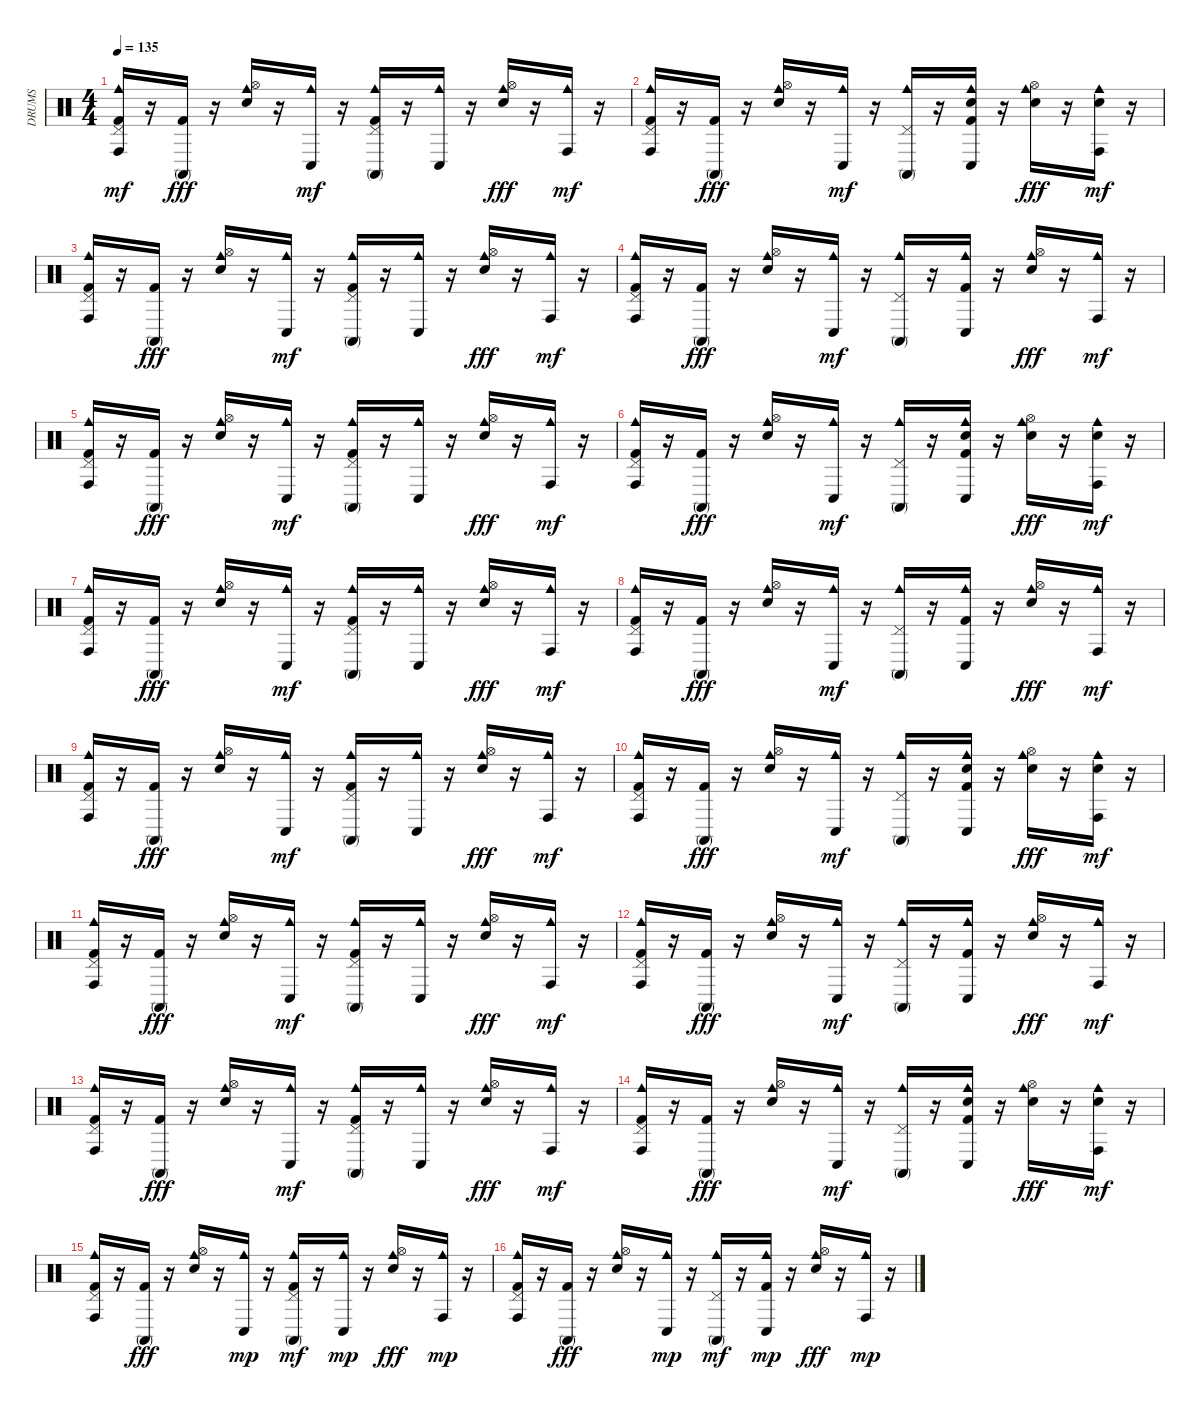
\track ("DRUMS" "DRUMS") {instrument percussion}
\staff {score}
\articulation defaults
\ts (4 4)
\tempo 135
\clef neutral
\ks c
("Kick (hit) 2" "Pedal Hi-Hat (hit)" "Cowbell medium (hit)" "Conga high (hit)").16{dy mf} r.16 ("Kick (hit) 2" "Conga high (mute)").16{dy fff} r.16 ("Snare (hit) 2" "Hi-Hat (open)" "Cowbell medium (hit)").16 r.16 ("Cowbell medium (hit)" "Conga low (hit)").16{dy mf} r.16 ("Kick (hit) 2" "Pedal Hi-Hat (hit)" "Cowbell medium (hit)" "Conga high (mute)").16 r.16 ("Cowbell medium (hit)" "Conga low (hit)").16 r.16 ("Snare (hit) 2" "Hi-Hat (open)" "Cowbell medium (hit)").16{dy fff} r.16 ("Cowbell medium (hit)" "Conga high (hit)").16{dy mf} r.16 |
("Kick (hit) 2" "Pedal Hi-Hat (hit)" "Cowbell medium (hit)" "Conga high (hit)").16 r.16 ("Kick (hit) 2" "Conga high (mute)").16{dy fff} r.16 ("Snare (hit) 2" "Hi-Hat (open)" "Cowbell medium (hit)").16 r.16 ("Cowbell medium (hit)" "Conga low (hit)").16{dy mf} r.16 ("Pedal Hi-Hat (hit)" "Cowbell medium (hit)" "Conga high (mute)").16 r.16 ("Kick (hit) 2" "Cowbell medium (hit)" "Hand Clap (hit)" "Conga low (hit)").16 r.16 ("Snare (hit) 2" "Hi-Hat (open)" "Cowbell medium (hit)").16{dy fff} r.16 ("Cowbell medium (hit)" "Hand Clap (hit)" "Conga high (hit)").16{dy mf} r.16 |
("Kick (hit) 2" "Pedal Hi-Hat (hit)" "Cowbell medium (hit)" "Conga high (hit)").16 r.16 ("Kick (hit) 2" "Conga high (mute)").16{dy fff} r.16 ("Snare (hit) 2" "Hi-Hat (open)" "Cowbell medium (hit)").16 r.16 ("Cowbell medium (hit)" "Conga low (hit)").16{dy mf} r.16 ("Kick (hit) 2" "Pedal Hi-Hat (hit)" "Cowbell medium (hit)" "Conga high (mute)").16 r.16 ("Cowbell medium (hit)" "Conga low (hit)").16 r.16 ("Snare (hit) 2" "Hi-Hat (open)" "Cowbell medium (hit)").16{dy fff} r.16 ("Cowbell medium (hit)" "Conga high (hit)").16{dy mf} r.16 |
("Kick (hit) 2" "Pedal Hi-Hat (hit)" "Cowbell medium (hit)" "Conga high (hit)").16 r.16 ("Kick (hit) 2" "Conga high (mute)").16{dy fff} r.16 ("Snare (hit) 2" "Hi-Hat (open)" "Cowbell medium (hit)").16 r.16 ("Cowbell medium (hit)" "Conga low (hit)").16{dy mf} r.16 ("Pedal Hi-Hat (hit)" "Cowbell medium (hit)" "Conga high (mute)").16 r.16 ("Kick (hit) 2" "Cowbell medium (hit)" "Conga low (hit)").16 r.16 ("Snare (hit) 2" "Hi-Hat (open)" "Cowbell medium (hit)").16{dy fff} r.16 ("Cowbell medium (hit)" "Conga high (hit)").16{dy mf} r.16 |
("Kick (hit) 2" "Pedal Hi-Hat (hit)" "Cowbell medium (hit)" "Conga high (hit)").16 r.16 ("Kick (hit) 2" "Conga high (mute)").16{dy fff} r.16 ("Snare (hit) 2" "Hi-Hat (open)" "Cowbell medium (hit)").16 r.16 ("Cowbell medium (hit)" "Conga low (hit)").16{dy mf} r.16 ("Kick (hit) 2" "Pedal Hi-Hat (hit)" "Cowbell medium (hit)" "Conga high (mute)").16 r.16 ("Cowbell medium (hit)" "Conga low (hit)").16 r.16 ("Snare (hit) 2" "Hi-Hat (open)" "Cowbell medium (hit)").16{dy fff} r.16 ("Cowbell medium (hit)" "Conga high (hit)").16{dy mf} r.16 |
("Kick (hit) 2" "Pedal Hi-Hat (hit)" "Cowbell medium (hit)" "Conga high (hit)").16 r.16 ("Kick (hit) 2" "Conga high (mute)").16{dy fff} r.16 ("Snare (hit) 2" "Hi-Hat (open)" "Cowbell medium (hit)").16 r.16 ("Cowbell medium (hit)" "Conga low (hit)").16{dy mf} r.16 ("Pedal Hi-Hat (hit)" "Cowbell medium (hit)" "Conga high (mute)").16 r.16 ("Kick (hit) 2" "Cowbell medium (hit)" "Hand Clap (hit)" "Conga low (hit)").16 r.16 ("Snare (hit) 2" "Hi-Hat (open)" "Cowbell medium (hit)").16{dy fff} r.16 ("Cowbell medium (hit)" "Hand Clap (hit)" "Conga high (hit)").16{dy mf} r.16 |
("Kick (hit) 2" "Pedal Hi-Hat (hit)" "Cowbell medium (hit)" "Conga high (hit)").16 r.16 ("Kick (hit) 2" "Conga high (mute)").16{dy fff} r.16 ("Snare (hit) 2" "Hi-Hat (open)" "Cowbell medium (hit)").16 r.16 ("Cowbell medium (hit)" "Conga low (hit)").16{dy mf} r.16 ("Kick (hit) 2" "Pedal Hi-Hat (hit)" "Cowbell medium (hit)" "Conga high (mute)").16 r.16 ("Cowbell medium (hit)" "Conga low (hit)").16 r.16 ("Snare (hit) 2" "Hi-Hat (open)" "Cowbell medium (hit)").16{dy fff} r.16 ("Cowbell medium (hit)" "Conga high (hit)").16{dy mf} r.16 |
("Kick (hit) 2" "Pedal Hi-Hat (hit)" "Cowbell medium (hit)" "Conga high (hit)").16 r.16 ("Kick (hit) 2" "Conga high (mute)").16{dy fff} r.16 ("Snare (hit) 2" "Hi-Hat (open)" "Cowbell medium (hit)").16 r.16 ("Cowbell medium (hit)" "Conga low (hit)").16{dy mf} r.16 ("Pedal Hi-Hat (hit)" "Cowbell medium (hit)" "Conga high (mute)").16 r.16 ("Kick (hit) 2" "Cowbell medium (hit)" "Conga low (hit)").16 r.16 ("Snare (hit) 2" "Hi-Hat (open)" "Cowbell medium (hit)").16{dy fff} r.16 ("Cowbell medium (hit)" "Conga high (hit)").16{dy mf} r.16 |
("Kick (hit) 2" "Pedal Hi-Hat (hit)" "Cowbell medium (hit)" "Conga high (hit)").16 r.16 ("Kick (hit) 2" "Conga high (mute)").16{dy fff} r.16 ("Snare (hit) 2" "Hi-Hat (open)" "Cowbell medium (hit)").16 r.16 ("Cowbell medium (hit)" "Conga low (hit)").16{dy mf} r.16 ("Kick (hit) 2" "Pedal Hi-Hat (hit)" "Cowbell medium (hit)" "Conga high (mute)").16 r.16 ("Cowbell medium (hit)" "Conga low (hit)").16 r.16 ("Snare (hit) 2" "Hi-Hat (open)" "Cowbell medium (hit)").16{dy fff} r.16 ("Cowbell medium (hit)" "Conga high (hit)").16{dy mf} r.16 |
("Kick (hit) 2" "Pedal Hi-Hat (hit)" "Cowbell medium (hit)" "Conga high (hit)").16 r.16 ("Kick (hit) 2" "Conga high (mute)").16{dy fff} r.16 ("Snare (hit) 2" "Hi-Hat (open)" "Cowbell medium (hit)").16 r.16 ("Cowbell medium (hit)" "Conga low (hit)").16{dy mf} r.16 ("Pedal Hi-Hat (hit)" "Cowbell medium (hit)" "Conga high (mute)").16 r.16 ("Kick (hit) 2" "Cowbell medium (hit)" "Hand Clap (hit)" "Conga low (hit)").16 r.16 ("Snare (hit) 2" "Hi-Hat (open)" "Cowbell medium (hit)").16{dy fff} r.16 ("Cowbell medium (hit)" "Hand Clap (hit)" "Conga high (hit)").16{dy mf} r.16 |
("Kick (hit) 2" "Pedal Hi-Hat (hit)" "Cowbell medium (hit)" "Conga high (hit)").16 r.16 ("Kick (hit) 2" "Conga high (mute)").16{dy fff} r.16 ("Snare (hit) 2" "Hi-Hat (open)" "Cowbell medium (hit)").16 r.16 ("Cowbell medium (hit)" "Conga low (hit)").16{dy mf} r.16 ("Kick (hit) 2" "Pedal Hi-Hat (hit)" "Cowbell medium (hit)" "Conga high (mute)").16 r.16 ("Cowbell medium (hit)" "Conga low (hit)").16 r.16 ("Snare (hit) 2" "Hi-Hat (open)" "Cowbell medium (hit)").16{dy fff} r.16 ("Cowbell medium (hit)" "Conga high (hit)").16{dy mf} r.16 |
("Kick (hit) 2" "Pedal Hi-Hat (hit)" "Cowbell medium (hit)" "Conga high (hit)").16 r.16 ("Kick (hit) 2" "Conga high (mute)").16{dy fff} r.16 ("Snare (hit) 2" "Hi-Hat (open)" "Cowbell medium (hit)").16 r.16 ("Cowbell medium (hit)" "Conga low (hit)").16{dy mf} r.16 ("Pedal Hi-Hat (hit)" "Cowbell medium (hit)" "Conga high (mute)").16 r.16 ("Kick (hit) 2" "Cowbell medium (hit)" "Conga low (hit)").16 r.16 ("Snare (hit) 2" "Hi-Hat (open)" "Cowbell medium (hit)").16{dy fff} r.16 ("Cowbell medium (hit)" "Conga high (hit)").16{dy mf} r.16 |
("Kick (hit) 2" "Pedal Hi-Hat (hit)" "Cowbell medium (hit)" "Conga high (hit)").16 r.16 ("Kick (hit) 2" "Conga high (mute)").16{dy fff} r.16 ("Snare (hit) 2" "Hi-Hat (open)" "Cowbell medium (hit)").16 r.16 ("Cowbell medium (hit)" "Conga low (hit)").16{dy mf} r.16 ("Kick (hit) 2" "Pedal Hi-Hat (hit)" "Cowbell medium (hit)" "Conga high (mute)").16 r.16 ("Cowbell medium (hit)" "Conga low (hit)").16 r.16 ("Snare (hit) 2" "Hi-Hat (open)" "Cowbell medium (hit)").16{dy fff} r.16 ("Cowbell medium (hit)" "Conga high (hit)").16{dy mf} r.16 |
("Kick (hit) 2" "Pedal Hi-Hat (hit)" "Cowbell medium (hit)" "Conga high (hit)").16 r.16 ("Kick (hit) 2" "Conga high (mute)").16{dy fff} r.16 ("Snare (hit) 2" "Hi-Hat (open)" "Cowbell medium (hit)").16 r.16 ("Cowbell medium (hit)" "Conga low (hit)").16{dy mf} r.16 ("Pedal Hi-Hat (hit)" "Cowbell medium (hit)" "Conga high (mute)").16 r.16 ("Kick (hit) 2" "Cowbell medium (hit)" "Hand Clap (hit)" "Conga low (hit)").16 r.16 ("Snare (hit) 2" "Hi-Hat (open)" "Cowbell medium (hit)").16{dy fff} r.16 ("Cowbell medium (hit)" "Hand Clap (hit)" "Conga high (hit)").16{dy mf} r.16 |
("Kick (hit) 2" "Pedal Hi-Hat (hit)" "Cowbell medium (hit)" "Conga high (hit)").16 r.16 ("Kick (hit) 2" "Conga high (mute)").16{dy fff} r.16 ("Snare (hit) 2" "Hi-Hat (open)" "Cowbell medium (hit)").16 r.16 ("Cowbell medium (hit)" "Conga low (hit)").16{dy mp} r.16 ("Kick (hit) 2" "Pedal Hi-Hat (hit)" "Cowbell medium (hit)" "Conga high (mute)").16{dy mf} r.16 ("Cowbell medium (hit)" "Conga low (hit)").16{dy mp} r.16 ("Snare (hit) 2" "Hi-Hat (open)" "Cowbell medium (hit)").16{dy fff} r.16 ("Cowbell medium (hit)" "Conga high (hit)").16{dy mp} r.16 |
("Kick (hit) 2" "Pedal Hi-Hat (hit)" "Cowbell medium (hit)" "Conga high (hit)").16 r.16 ("Kick (hit) 2" "Conga high (mute)").16{dy fff} r.16 ("Snare (hit) 2" "Hi-Hat (open)" "Cowbell medium (hit)").16 r.16 ("Cowbell medium (hit)" "Conga low (hit)").16{dy mp} r.16 ("Pedal Hi-Hat (hit)" "Cowbell medium (hit)" "Conga high (mute)").16{dy mf} r.16 ("Kick (hit) 2" "Cowbell medium (hit)" "Conga low (hit)").16{dy mp} r.16 ("Snare (hit) 2" "Hi-Hat (open)" "Cowbell medium (hit)").16{dy fff} r.16 ("Cowbell medium (hit)" "Conga high (hit)").16{dy mp} r.16
